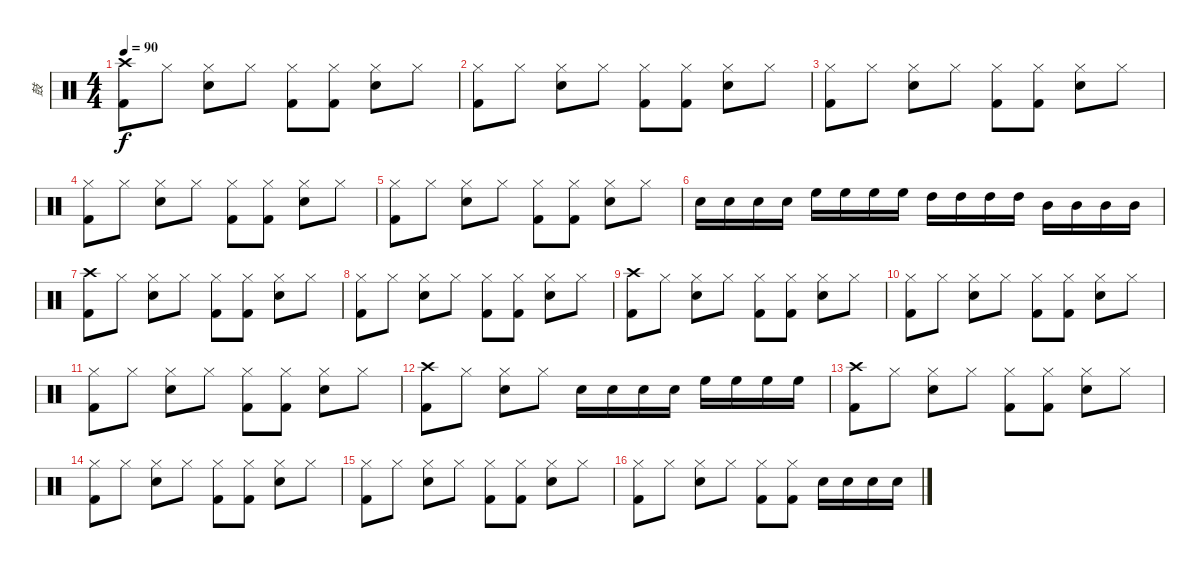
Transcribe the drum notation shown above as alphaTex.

\track ("鼓" "鼓") {instrument percussion}
\staff {score}
\articulation defaults
\ts (4 4)
\tempo 90
\clef neutral
\ks c
("Crash high (hit)" "Kick (hit) 2").8{dy f} "Hi-Hat (closed)".8 ("Hi-Hat (closed)" "Snare (hit) 2").8 "Hi-Hat (closed)".8 ("Hi-Hat (closed)" "Kick (hit) 2").8 ("Hi-Hat (closed)" "Kick (hit) 2").8 ("Hi-Hat (closed)" "Snare (hit) 2").8 "Hi-Hat (closed)".8 |
("Hi-Hat (closed)" "Kick (hit) 2").8 "Hi-Hat (closed)".8 ("Hi-Hat (closed)" "Snare (hit) 2").8 "Hi-Hat (closed)".8 ("Hi-Hat (closed)" "Kick (hit) 2").8 ("Hi-Hat (closed)" "Kick (hit) 2").8 ("Hi-Hat (closed)" "Snare (hit) 2").8 "Hi-Hat (closed)".8 |
("Hi-Hat (closed)" "Kick (hit) 2").8 "Hi-Hat (closed)".8 ("Hi-Hat (closed)" "Snare (hit) 2").8 "Hi-Hat (closed)".8 ("Hi-Hat (closed)" "Kick (hit) 2").8 ("Hi-Hat (closed)" "Kick (hit) 2").8 ("Hi-Hat (closed)" "Snare (hit) 2").8 "Hi-Hat (closed)".8 |
("Hi-Hat (closed)" "Kick (hit) 2").8 "Hi-Hat (closed)".8 ("Hi-Hat (closed)" "Snare (hit) 2").8 "Hi-Hat (closed)".8 ("Hi-Hat (closed)" "Kick (hit) 2").8 ("Hi-Hat (closed)" "Kick (hit) 2").8 ("Hi-Hat (closed)" "Snare (hit) 2").8 "Hi-Hat (closed)".8 |
("Hi-Hat (closed)" "Kick (hit) 2").8 "Hi-Hat (closed)".8 ("Hi-Hat (closed)" "Snare (hit) 2").8 "Hi-Hat (closed)".8 ("Hi-Hat (closed)" "Kick (hit) 2").8 ("Hi-Hat (closed)" "Kick (hit) 2").8 ("Hi-Hat (closed)" "Snare (hit) 2").8 "Hi-Hat (closed)".8 |
"Snare (hit) 2".16 "Snare (hit) 2".16 "Snare (hit) 2".16 "Snare (hit) 2".16 "High Floor Tom (hit)".16 "High Floor Tom (hit)".16 "High Floor Tom (hit)".16 "High Floor Tom (hit)".16 "High Tom (hit)".16 "High Tom (hit)".16 "High Tom (hit)".16 "High Tom (hit)".16 "Mid Tom (hit)".16 "Mid Tom (hit)".16 "Mid Tom (hit)".16 "Mid Tom (hit)".16 |
("Crash high (hit)" "Kick (hit) 2").8 "Hi-Hat (closed)".8 ("Hi-Hat (closed)" "Snare (hit) 2").8 "Hi-Hat (closed)".8 ("Hi-Hat (closed)" "Kick (hit) 2").8 ("Hi-Hat (closed)" "Kick (hit) 2").8 ("Hi-Hat (closed)" "Snare (hit) 2").8 "Hi-Hat (closed)".8 |
("Hi-Hat (closed)" "Kick (hit) 2").8 "Hi-Hat (closed)".8 ("Hi-Hat (closed)" "Snare (hit) 2").8 "Hi-Hat (closed)".8 ("Hi-Hat (closed)" "Kick (hit) 2").8 ("Hi-Hat (closed)" "Kick (hit) 2").8 ("Hi-Hat (closed)" "Snare (hit) 2").8 "Hi-Hat (closed)".8 |
("Crash high (hit)" "Kick (hit) 2").8 "Hi-Hat (closed)".8 ("Hi-Hat (closed)" "Snare (hit) 2").8 "Hi-Hat (closed)".8 ("Hi-Hat (closed)" "Kick (hit) 2").8 ("Hi-Hat (closed)" "Kick (hit) 2").8 ("Hi-Hat (closed)" "Snare (hit) 2").8 "Hi-Hat (closed)".8 |
("Hi-Hat (closed)" "Kick (hit) 2").8 "Hi-Hat (closed)".8 ("Hi-Hat (closed)" "Snare (hit) 2").8 "Hi-Hat (closed)".8 ("Hi-Hat (closed)" "Kick (hit) 2").8 ("Hi-Hat (closed)" "Kick (hit) 2").8 ("Hi-Hat (closed)" "Snare (hit) 2").8 "Hi-Hat (closed)".8 |
("Hi-Hat (closed)" "Kick (hit) 2").8 "Hi-Hat (closed)".8 ("Hi-Hat (closed)" "Snare (hit) 2").8 "Hi-Hat (closed)".8 ("Hi-Hat (closed)" "Kick (hit) 2").8 ("Hi-Hat (closed)" "Kick (hit) 2").8 ("Hi-Hat (closed)" "Snare (hit) 2").8 "Hi-Hat (closed)".8 |
("Crash high (hit)" "Kick (hit) 2").8 "Hi-Hat (closed)".8 ("Hi-Hat (closed)" "Snare (hit) 2").8 "Hi-Hat (closed)".8 "Snare (hit) 2".16 "Snare (hit) 2".16 "Snare (hit) 2".16 "Snare (hit) 2".16 "High Floor Tom (hit)".16 "High Floor Tom (hit)".16 "High Floor Tom (hit)".16 "High Floor Tom (hit)".16 |
("Crash high (hit)" "Kick (hit) 2").8 "Hi-Hat (closed)".8 ("Hi-Hat (closed)" "Snare (hit) 2").8 "Hi-Hat (closed)".8 ("Hi-Hat (closed)" "Kick (hit) 2").8 ("Hi-Hat (closed)" "Kick (hit) 2").8 ("Hi-Hat (closed)" "Snare (hit) 2").8 "Hi-Hat (closed)".8 |
("Hi-Hat (closed)" "Kick (hit) 2").8 "Hi-Hat (closed)".8 ("Hi-Hat (closed)" "Snare (hit) 2").8 "Hi-Hat (closed)".8 ("Hi-Hat (closed)" "Kick (hit) 2").8 ("Hi-Hat (closed)" "Kick (hit) 2").8 ("Hi-Hat (closed)" "Snare (hit) 2").8 "Hi-Hat (closed)".8 |
("Hi-Hat (closed)" "Kick (hit) 2").8 "Hi-Hat (closed)".8 ("Hi-Hat (closed)" "Snare (hit) 2").8 "Hi-Hat (closed)".8 ("Hi-Hat (closed)" "Kick (hit) 2").8 ("Hi-Hat (closed)" "Kick (hit) 2").8 ("Hi-Hat (closed)" "Snare (hit) 2").8 "Hi-Hat (closed)".8 |
("Hi-Hat (closed)" "Kick (hit) 2").8 "Hi-Hat (closed)".8 ("Hi-Hat (closed)" "Snare (hit) 2").8 "Hi-Hat (closed)".8 ("Hi-Hat (closed)" "Kick (hit) 2").8 ("Hi-Hat (closed)" "Kick (hit) 2").8 "Snare (hit) 2".16 "Snare (hit) 2".16 "Snare (hit) 2".16 "Snare (hit) 2".16
